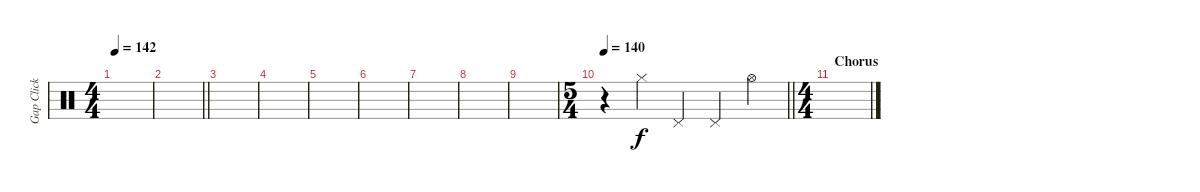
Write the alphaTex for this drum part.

\track ("Gap Click" "Gap Click") {instrument percussion}
\staff {score}
\articulation defaults
\ts (4 4)
\tempo 142
\clef neutral
\ks c
|
\barLineRight lightlight
|
|
|
|
|
|
|
|
\ts (5 4)
\tempo 140
\barLineRight lightlight
r.4 "Hi-Hat (closed)".4 "Pedal Hi-Hat (hit)".4 "Pedal Hi-Hat (hit)".4 "Hi-Hat (open)".4 |
\ts (4 4)
\section ("" "Chorus")
